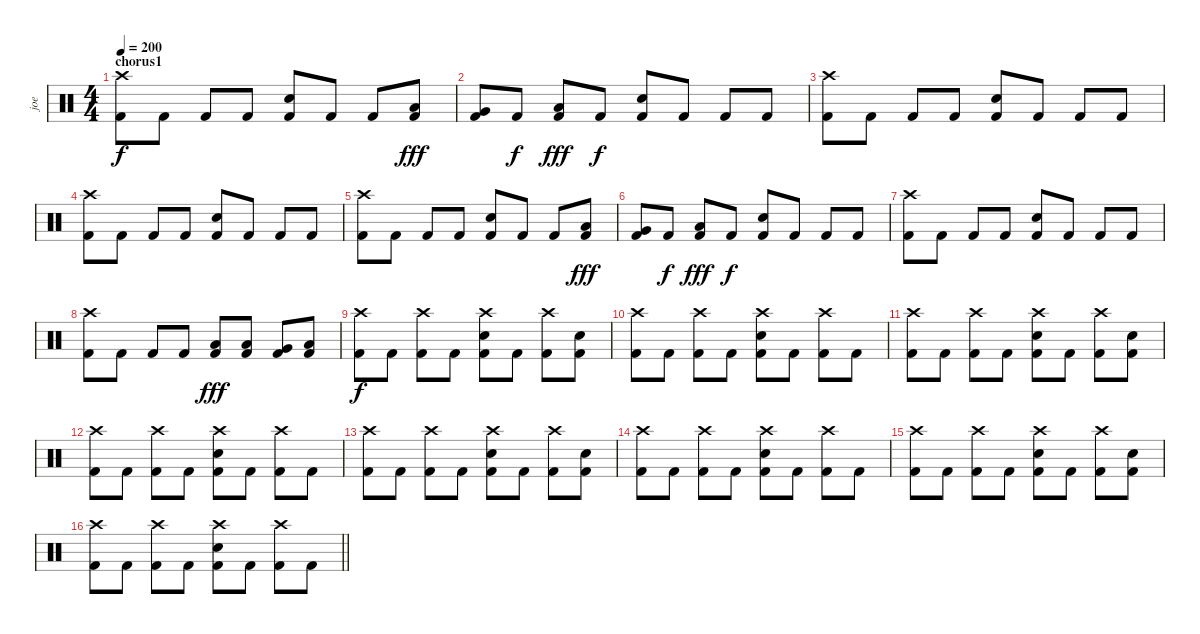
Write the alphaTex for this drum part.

\track ("joe" "joe") {instrument percussion}
\staff {score}
\articulation defaults
\ts (4 4)
\section ("" "chorus1")
\tempo 200
\clef neutral
\ks c
("Crash high (hit)" "Kick (hit) 2").8{dy f} "Kick (hit) 2".8 "Kick (hit) 2".8 "Kick (hit) 2".8 ("Snare (hit) 2" "Kick (hit) 2").8 "Kick (hit) 2".8 "Kick (hit) 2".8 ("Low Tom (hit)" "Kick (hit) 2").8{dy fff} |
("Very Low Tom (hit)" "Kick (hit) 2").8 "Kick (hit) 2".8{dy f} ("Low Floor Tom (hit)" "Kick (hit) 2").8{dy fff} "Kick (hit) 2".8{dy f} ("Snare (hit) 2" "Kick (hit) 2").8 "Kick (hit) 2".8 "Kick (hit) 2".8 "Kick (hit) 2".8 |
("Crash high (hit)" "Kick (hit) 2").8 "Kick (hit) 2".8 "Kick (hit) 2".8 "Kick (hit) 2".8 ("Snare (hit) 2" "Kick (hit) 2").8 "Kick (hit) 2".8 "Kick (hit) 2".8 "Kick (hit) 2".8 |
("Crash high (hit)" "Kick (hit) 2").8 "Kick (hit) 2".8 "Kick (hit) 2".8 "Kick (hit) 2".8 ("Snare (hit) 2" "Kick (hit) 2").8 "Kick (hit) 2".8 "Kick (hit) 2".8 "Kick (hit) 2".8 |
("Crash high (hit)" "Kick (hit) 2").8 "Kick (hit) 2".8 "Kick (hit) 2".8 "Kick (hit) 2".8 ("Snare (hit) 2" "Kick (hit) 2").8 "Kick (hit) 2".8 "Kick (hit) 2".8 ("Low Tom (hit)" "Kick (hit) 2").8{dy fff} |
("Very Low Tom (hit)" "Kick (hit) 2").8 "Kick (hit) 2".8{dy f} ("Low Floor Tom (hit)" "Kick (hit) 2").8{dy fff} "Kick (hit) 2".8{dy f} ("Snare (hit) 2" "Kick (hit) 2").8 "Kick (hit) 2".8 "Kick (hit) 2".8 "Kick (hit) 2".8 |
("Crash high (hit)" "Kick (hit) 2").8 "Kick (hit) 2".8 "Kick (hit) 2".8 "Kick (hit) 2".8 ("Snare (hit) 2" "Kick (hit) 2").8 "Kick (hit) 2".8 "Kick (hit) 2".8 "Kick (hit) 2".8 |
("Crash high (hit)" "Kick (hit) 2").8 "Kick (hit) 2".8 "Kick (hit) 2".8 "Kick (hit) 2".8 ("Low Tom (hit)" "Kick (hit) 2").8{dy fff} ("Low Tom (hit)" "Kick (hit) 2").8 ("Very Low Tom (hit)" "Kick (hit) 2").8 ("Low Floor Tom (hit)" "Kick (hit) 2").8 |
("Crash high (hit)" "Kick (hit) 2").8{dy f} "Kick (hit) 2".8 ("Crash high (hit)" "Kick (hit) 2").8 "Kick (hit) 2".8 ("Crash high (hit)" "Snare (hit) 2" "Kick (hit) 2").8 "Kick (hit) 2".8 ("Crash high (hit)" "Kick (hit) 2").8 ("Snare (hit) 2" "Kick (hit) 2").8 |
("Crash high (hit)" "Kick (hit) 2").8 "Kick (hit) 2".8 ("Crash high (hit)" "Kick (hit) 2").8 "Kick (hit) 2".8 ("Crash high (hit)" "Snare (hit) 2" "Kick (hit) 2").8 "Kick (hit) 2".8 ("Crash high (hit)" "Kick (hit) 2").8 "Kick (hit) 2".8 |
("Crash high (hit)" "Kick (hit) 2").8 "Kick (hit) 2".8 ("Crash high (hit)" "Kick (hit) 2").8 "Kick (hit) 2".8 ("Crash high (hit)" "Snare (hit) 2" "Kick (hit) 2").8 "Kick (hit) 2".8 ("Crash high (hit)" "Kick (hit) 2").8 ("Snare (hit) 2" "Kick (hit) 2").8 |
("Crash high (hit)" "Kick (hit) 2").8 "Kick (hit) 2".8 ("Crash high (hit)" "Kick (hit) 2").8 "Kick (hit) 2".8 ("Crash high (hit)" "Snare (hit) 2" "Kick (hit) 2").8 "Kick (hit) 2".8 ("Crash high (hit)" "Kick (hit) 2").8 "Kick (hit) 2".8 |
("Crash high (hit)" "Kick (hit) 2").8 "Kick (hit) 2".8 ("Crash high (hit)" "Kick (hit) 2").8 "Kick (hit) 2".8 ("Crash high (hit)" "Snare (hit) 2" "Kick (hit) 2").8 "Kick (hit) 2".8 ("Crash high (hit)" "Kick (hit) 2").8 ("Snare (hit) 2" "Kick (hit) 2").8 |
("Crash high (hit)" "Kick (hit) 2").8 "Kick (hit) 2".8 ("Crash high (hit)" "Kick (hit) 2").8 "Kick (hit) 2".8 ("Crash high (hit)" "Snare (hit) 2" "Kick (hit) 2").8 "Kick (hit) 2".8 ("Crash high (hit)" "Kick (hit) 2").8 "Kick (hit) 2".8 |
("Crash high (hit)" "Kick (hit) 2").8 "Kick (hit) 2".8 ("Crash high (hit)" "Kick (hit) 2").8 "Kick (hit) 2".8 ("Crash high (hit)" "Snare (hit) 2" "Kick (hit) 2").8 "Kick (hit) 2".8 ("Crash high (hit)" "Kick (hit) 2").8 ("Snare (hit) 2" "Kick (hit) 2").8 |
\barLineRight lightlight
("Crash high (hit)" "Kick (hit) 2").8 "Kick (hit) 2".8 ("Crash high (hit)" "Kick (hit) 2").8 "Kick (hit) 2".8 ("Crash high (hit)" "Snare (hit) 2" "Kick (hit) 2").8 "Kick (hit) 2".8 ("Crash high (hit)" "Kick (hit) 2").8 "Kick (hit) 2".8
